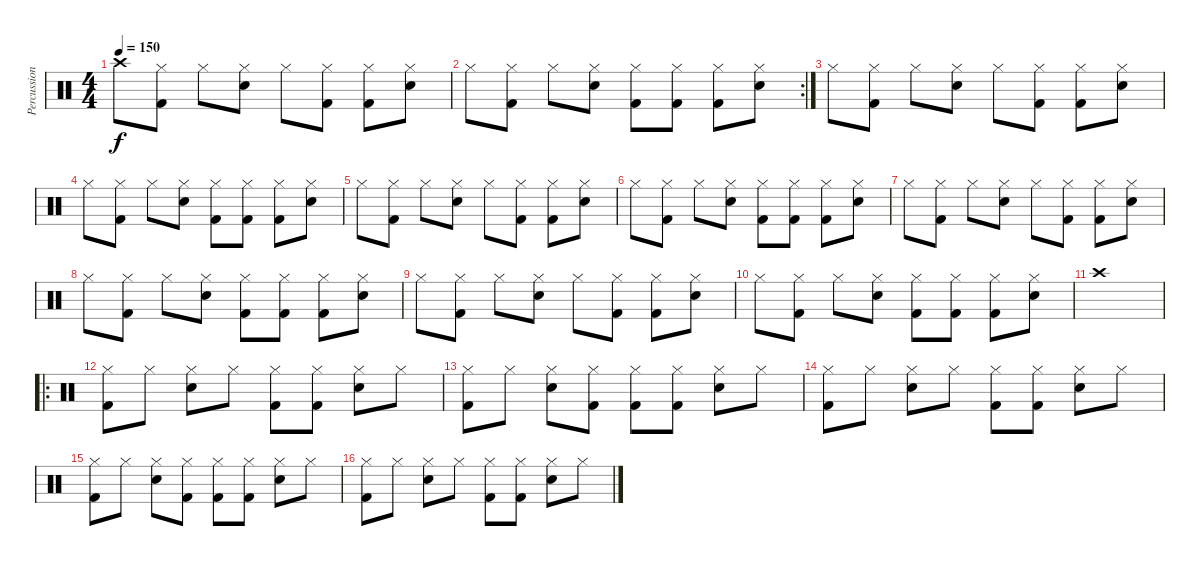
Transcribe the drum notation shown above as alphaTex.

\track ("Percussion" "Percussion") {instrument percussion}
\staff {score}
\articulation defaults
\ts (4 4)
\tempo 150
\clef neutral
\ks c "Crash high (hit)".8{dy f}
("Hi-Hat (closed)" "Kick (hit) 2").8 "Hi-Hat (closed)".8 ("Hi-Hat (closed)" "Snare (hit) 2").8 "Hi-Hat (closed)".8 ("Hi-Hat (closed)" "Kick (hit) 2").8 ("Hi-Hat (closed)" "Kick (hit) 2").8 ("Hi-Hat (closed)" "Snare (hit) 2").8 |
\rc 2 "Hi-Hat (closed)".8
("Hi-Hat (closed)" "Kick (hit) 2").8 "Hi-Hat (closed)".8 ("Hi-Hat (closed)" "Snare (hit) 2").8 ("Hi-Hat (closed)" "Kick (hit) 2").8 ("Hi-Hat (closed)" "Kick (hit) 2").8 ("Hi-Hat (closed)" "Kick (hit) 2").8 ("Hi-Hat (closed)" "Snare (hit) 2").8 |
"Hi-Hat (closed)".8 ("Hi-Hat (closed)" "Kick (hit) 2").8 "Hi-Hat (closed)".8 ("Hi-Hat (closed)" "Snare (hit) 2").8 "Hi-Hat (closed)".8 ("Hi-Hat (closed)" "Kick (hit) 2").8 ("Hi-Hat (closed)" "Kick (hit) 2").8 ("Hi-Hat (closed)" "Snare (hit) 2").8 |
"Hi-Hat (closed)".8 ("Hi-Hat (closed)" "Kick (hit) 2").8 "Hi-Hat (closed)".8 ("Hi-Hat (closed)" "Snare (hit) 2").8 ("Hi-Hat (closed)" "Kick (hit) 2").8 ("Hi-Hat (closed)" "Kick (hit) 2").8 ("Hi-Hat (closed)" "Kick (hit) 2").8 ("Hi-Hat (closed)" "Snare (hit) 2").8 |
"Hi-Hat (closed)".8 ("Hi-Hat (closed)" "Kick (hit) 2").8 "Hi-Hat (closed)".8 ("Hi-Hat (closed)" "Snare (hit) 2").8 "Hi-Hat (closed)".8 ("Hi-Hat (closed)" "Kick (hit) 2").8 ("Hi-Hat (closed)" "Kick (hit) 2").8 ("Hi-Hat (closed)" "Snare (hit) 2").8 |
"Hi-Hat (closed)".8 ("Hi-Hat (closed)" "Kick (hit) 2").8 "Hi-Hat (closed)".8 ("Hi-Hat (closed)" "Snare (hit) 2").8 ("Hi-Hat (closed)" "Kick (hit) 2").8 ("Hi-Hat (closed)" "Kick (hit) 2").8 ("Hi-Hat (closed)" "Kick (hit) 2").8 ("Hi-Hat (closed)" "Snare (hit) 2").8 |
"Hi-Hat (closed)".8 ("Hi-Hat (closed)" "Kick (hit) 2").8 "Hi-Hat (closed)".8 ("Hi-Hat (closed)" "Snare (hit) 2").8 "Hi-Hat (closed)".8 ("Hi-Hat (closed)" "Kick (hit) 2").8 ("Hi-Hat (closed)" "Kick (hit) 2").8 ("Hi-Hat (closed)" "Snare (hit) 2").8 |
"Hi-Hat (closed)".8 ("Hi-Hat (closed)" "Kick (hit) 2").8 "Hi-Hat (closed)".8 ("Hi-Hat (closed)" "Snare (hit) 2").8 ("Hi-Hat (closed)" "Kick (hit) 2").8 ("Hi-Hat (closed)" "Kick (hit) 2").8 ("Hi-Hat (closed)" "Kick (hit) 2").8 ("Hi-Hat (closed)" "Snare (hit) 2").8 |
"Hi-Hat (closed)".8 ("Hi-Hat (closed)" "Kick (hit) 2").8 "Hi-Hat (closed)".8 ("Hi-Hat (closed)" "Snare (hit) 2").8 "Hi-Hat (closed)".8 ("Hi-Hat (closed)" "Kick (hit) 2").8 ("Hi-Hat (closed)" "Kick (hit) 2").8 ("Hi-Hat (closed)" "Snare (hit) 2").8 |
"Hi-Hat (closed)".8 ("Hi-Hat (closed)" "Kick (hit) 2").8 "Hi-Hat (closed)".8 ("Hi-Hat (closed)" "Snare (hit) 2").8 ("Hi-Hat (closed)" "Kick (hit) 2").8 ("Hi-Hat (closed)" "Kick (hit) 2").8 ("Hi-Hat (closed)" "Kick (hit) 2").8 ("Hi-Hat (closed)" "Snare (hit) 2").8 |
"Crash high (hit)".1 |
\ro
("Hi-Hat (closed)" "Kick (hit) 2").8 "Hi-Hat (closed)".8 ("Hi-Hat (closed)" "Snare (hit) 2").8 "Hi-Hat (closed)".8 ("Hi-Hat (closed)" "Kick (hit) 2").8 ("Hi-Hat (closed)" "Kick (hit) 2").8 ("Hi-Hat (closed)" "Snare (hit) 2").8 "Hi-Hat (closed)".8 |
("Hi-Hat (closed)" "Kick (hit) 2").8 "Hi-Hat (closed)".8 ("Hi-Hat (closed)" "Snare (hit) 2").8 ("Hi-Hat (closed)" "Kick (hit) 2").8 ("Hi-Hat (closed)" "Kick (hit) 2").8 ("Hi-Hat (closed)" "Kick (hit) 2").8 ("Hi-Hat (closed)" "Snare (hit) 2").8 "Hi-Hat (closed)".8 |
("Hi-Hat (closed)" "Kick (hit) 2").8 "Hi-Hat (closed)".8 ("Hi-Hat (closed)" "Snare (hit) 2").8 "Hi-Hat (closed)".8 ("Hi-Hat (closed)" "Kick (hit) 2").8 ("Hi-Hat (closed)" "Kick (hit) 2").8 ("Hi-Hat (closed)" "Snare (hit) 2").8 "Hi-Hat (closed)".8 |
("Hi-Hat (closed)" "Kick (hit) 2").8 "Hi-Hat (closed)".8 ("Hi-Hat (closed)" "Snare (hit) 2").8 ("Hi-Hat (closed)" "Kick (hit) 2").8 ("Hi-Hat (closed)" "Kick (hit) 2").8 ("Hi-Hat (closed)" "Kick (hit) 2").8 ("Hi-Hat (closed)" "Snare (hit) 2").8 "Hi-Hat (closed)".8 |
("Hi-Hat (closed)" "Kick (hit) 2").8 "Hi-Hat (closed)".8 ("Hi-Hat (closed)" "Snare (hit) 2").8 "Hi-Hat (closed)".8 ("Hi-Hat (closed)" "Kick (hit) 2").8 ("Hi-Hat (closed)" "Kick (hit) 2").8 ("Hi-Hat (closed)" "Snare (hit) 2").8 "Hi-Hat (closed)".8
